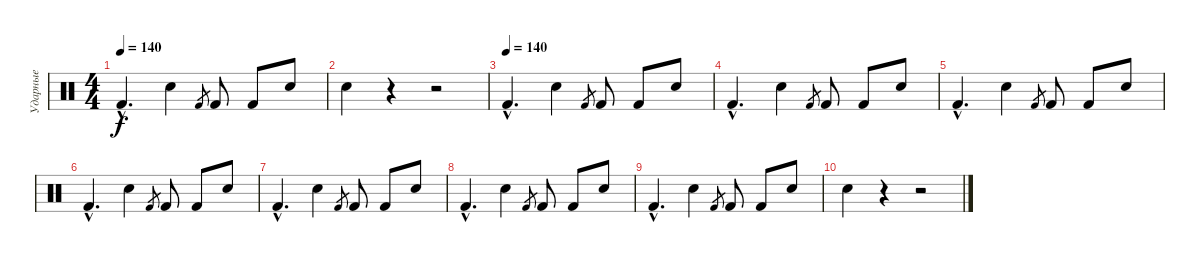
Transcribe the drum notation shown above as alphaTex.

\track ("Ударные" "Ударные") {instrument percussion}
\staff {score}
\articulation defaults
\ts (4 4)
\tempo 140
\clef neutral
\ks c "Kick (hit) 2"{hac}.4{d dy f} "Hand Clap (hit)".4 "Kick (hit) 2".8{gr} "Kick (hit) 2".8 "Kick (hit) 2".8 "Hand Clap (hit)".8
|
"Hand Clap (hit)".4 r.4 r.2 |
\tempo (140)
"Kick (hit) 2"{hac}.4{d} "Hand Clap (hit)".4 "Kick (hit) 2".8{gr} "Kick (hit) 2".8 "Kick (hit) 2".8 "Hand Clap (hit)".8 |
"Kick (hit) 2"{hac}.4{d} "Hand Clap (hit)".4 "Kick (hit) 2".8{gr} "Kick (hit) 2".8 "Kick (hit) 2".8 "Hand Clap (hit)".8 |
"Kick (hit) 2"{hac}.4{d} "Hand Clap (hit)".4 "Kick (hit) 2".8{gr} "Kick (hit) 2".8 "Kick (hit) 2".8 "Hand Clap (hit)".8 |
"Kick (hit) 2"{hac}.4{d} "Hand Clap (hit)".4 "Kick (hit) 2".8{gr} "Kick (hit) 2".8 "Kick (hit) 2".8 "Hand Clap (hit)".8 |
"Kick (hit) 2"{hac}.4{d} "Hand Clap (hit)".4 "Kick (hit) 2".8{gr} "Kick (hit) 2".8 "Kick (hit) 2".8 "Hand Clap (hit)".8 |
"Kick (hit) 2"{hac}.4{d} "Hand Clap (hit)".4 "Kick (hit) 2".8{gr} "Kick (hit) 2".8 "Kick (hit) 2".8 "Hand Clap (hit)".8 |
"Kick (hit) 2"{hac}.4{d} "Hand Clap (hit)".4 "Kick (hit) 2".8{gr} "Kick (hit) 2".8 "Kick (hit) 2".8 "Hand Clap (hit)".8 |
"Hand Clap (hit)".4 r.4 r.2
